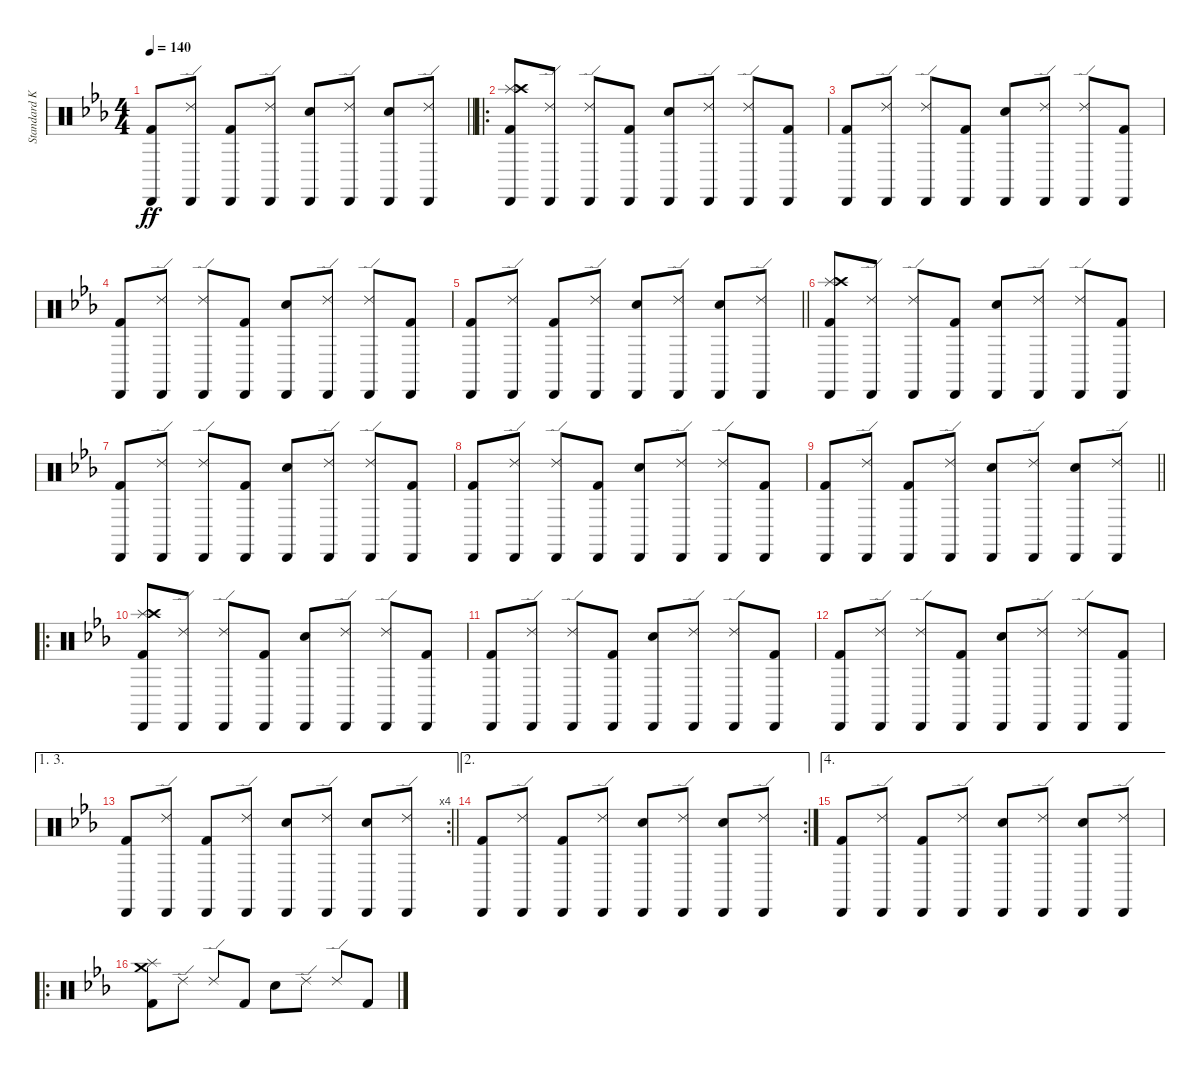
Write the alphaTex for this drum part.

\track ("Standard Kit" "Standard K") {instrument percussion}
\staff {score}
\articulation defaults
\ts (4 4)
\tempo 140
\clef neutral
\barLineRight lightlight
\ks eb
("Kick (hit) 2" "Cabasa (hit)").8{dy ff} ("Cabasa (hit)" "Ride (edge) 2").8 ("Kick (hit) 2" "Cabasa (hit)").8 ("Cabasa (hit)" "Ride (edge) 2").8 ("Cabasa (hit)" "Snare (hit) 2").8 ("Cabasa (hit)" "Ride (edge) 2").8 ("Cabasa (hit)" "Snare (hit) 2").8 ("Cabasa (hit)" "Ride (edge) 2").8 |
\ro
("Kick (hit) 2" "Cabasa (hit)" "Splash (hit)" "Crash high (hit)").8 ("Cabasa (hit)" "Ride (edge) 2").8 ("Cabasa (hit)" "Ride (edge) 2").8 ("Kick (hit) 2" "Cabasa (hit)").8 ("Cabasa (hit)" "Snare (hit) 2").8 ("Cabasa (hit)" "Ride (edge) 2").8 ("Cabasa (hit)" "Ride (edge) 2").8 ("Kick (hit) 2" "Cabasa (hit)").8 |
("Kick (hit) 2" "Cabasa (hit)").8 ("Cabasa (hit)" "Ride (edge) 2").8 ("Cabasa (hit)" "Ride (edge) 2").8 ("Kick (hit) 2" "Cabasa (hit)").8 ("Cabasa (hit)" "Snare (hit) 2").8 ("Cabasa (hit)" "Ride (edge) 2").8 ("Cabasa (hit)" "Ride (edge) 2").8 ("Kick (hit) 2" "Cabasa (hit)").8 |
("Kick (hit) 2" "Cabasa (hit)").8 ("Cabasa (hit)" "Ride (edge) 2").8 ("Cabasa (hit)" "Ride (edge) 2").8 ("Kick (hit) 2" "Cabasa (hit)").8 ("Cabasa (hit)" "Snare (hit) 2").8 ("Cabasa (hit)" "Ride (edge) 2").8 ("Cabasa (hit)" "Ride (edge) 2").8 ("Kick (hit) 2" "Cabasa (hit)").8 |
\barLineRight lightlight
("Kick (hit) 2" "Cabasa (hit)").8 ("Cabasa (hit)" "Ride (edge) 2").8 ("Kick (hit) 2" "Cabasa (hit)").8 ("Cabasa (hit)" "Ride (edge) 2").8 ("Cabasa (hit)" "Snare (hit) 2").8 ("Cabasa (hit)" "Ride (edge) 2").8 ("Cabasa (hit)" "Snare (hit) 2").8 ("Cabasa (hit)" "Ride (edge) 2").8 |
("Kick (hit) 2" "Cabasa (hit)" "Splash (hit)" "Crash high (hit)").8 ("Cabasa (hit)" "Ride (edge) 2").8 ("Cabasa (hit)" "Ride (edge) 2").8 ("Kick (hit) 2" "Cabasa (hit)").8 ("Cabasa (hit)" "Snare (hit) 2").8 ("Cabasa (hit)" "Ride (edge) 2").8 ("Cabasa (hit)" "Ride (edge) 2").8 ("Kick (hit) 2" "Cabasa (hit)").8 |
("Kick (hit) 2" "Cabasa (hit)").8 ("Cabasa (hit)" "Ride (edge) 2").8 ("Cabasa (hit)" "Ride (edge) 2").8 ("Kick (hit) 2" "Cabasa (hit)").8 ("Cabasa (hit)" "Snare (hit) 2").8 ("Cabasa (hit)" "Ride (edge) 2").8 ("Cabasa (hit)" "Ride (edge) 2").8 ("Kick (hit) 2" "Cabasa (hit)").8 |
("Kick (hit) 2" "Cabasa (hit)").8 ("Cabasa (hit)" "Ride (edge) 2").8 ("Cabasa (hit)" "Ride (edge) 2").8 ("Kick (hit) 2" "Cabasa (hit)").8 ("Cabasa (hit)" "Snare (hit) 2").8 ("Cabasa (hit)" "Ride (edge) 2").8 ("Cabasa (hit)" "Ride (edge) 2").8 ("Kick (hit) 2" "Cabasa (hit)").8 |
\barLineRight lightlight
("Kick (hit) 2" "Cabasa (hit)").8 ("Cabasa (hit)" "Ride (edge) 2").8 ("Kick (hit) 2" "Cabasa (hit)").8 ("Cabasa (hit)" "Ride (edge) 2").8 ("Cabasa (hit)" "Snare (hit) 2").8 ("Cabasa (hit)" "Ride (edge) 2").8 ("Cabasa (hit)" "Snare (hit) 2").8 ("Cabasa (hit)" "Ride (edge) 2").8 |
\ro
("Kick (hit) 2" "Cabasa (hit)" "Splash (hit)" "Crash high (hit)").8 ("Cabasa (hit)" "Ride (edge) 2").8 ("Cabasa (hit)" "Ride (edge) 2").8 ("Kick (hit) 2" "Cabasa (hit)").8 ("Cabasa (hit)" "Snare (hit) 2").8 ("Cabasa (hit)" "Ride (edge) 2").8 ("Cabasa (hit)" "Ride (edge) 2").8 ("Kick (hit) 2" "Cabasa (hit)").8 |
("Kick (hit) 2" "Cabasa (hit)").8 ("Cabasa (hit)" "Ride (edge) 2").8 ("Cabasa (hit)" "Ride (edge) 2").8 ("Kick (hit) 2" "Cabasa (hit)").8 ("Cabasa (hit)" "Snare (hit) 2").8 ("Cabasa (hit)" "Ride (edge) 2").8 ("Cabasa (hit)" "Ride (edge) 2").8 ("Kick (hit) 2" "Cabasa (hit)").8 |
("Kick (hit) 2" "Cabasa (hit)").8 ("Cabasa (hit)" "Ride (edge) 2").8 ("Cabasa (hit)" "Ride (edge) 2").8 ("Kick (hit) 2" "Cabasa (hit)").8 ("Cabasa (hit)" "Snare (hit) 2").8 ("Cabasa (hit)" "Ride (edge) 2").8 ("Cabasa (hit)" "Ride (edge) 2").8 ("Kick (hit) 2" "Cabasa (hit)").8 |
\ae (1 3)
\rc 4
\barLineRight lightlight
("Kick (hit) 2" "Cabasa (hit)").8 ("Cabasa (hit)" "Ride (edge) 2").8 ("Kick (hit) 2" "Cabasa (hit)").8 ("Cabasa (hit)" "Ride (edge) 2").8 ("Cabasa (hit)" "Snare (hit) 2").8 ("Cabasa (hit)" "Ride (edge) 2").8 ("Cabasa (hit)" "Snare (hit) 2").8 ("Cabasa (hit)" "Ride (edge) 2").8 |
\ae 2
\rc 2
("Kick (hit) 2" "Cabasa (hit)").8 ("Cabasa (hit)" "Ride (edge) 2").8 ("Kick (hit) 2" "Cabasa (hit)").8 ("Cabasa (hit)" "Ride (edge) 2").8 ("Cabasa (hit)" "Snare (hit) 2").8 ("Cabasa (hit)" "Ride (edge) 2").8 ("Cabasa (hit)" "Snare (hit) 2").8 ("Cabasa (hit)" "Ride (edge) 2").8 |
\ae 4
("Kick (hit) 2" "Cabasa (hit)").8 ("Cabasa (hit)" "Ride (edge) 2").8 ("Kick (hit) 2" "Cabasa (hit)").8 ("Cabasa (hit)" "Ride (edge) 2").8 ("Cabasa (hit)" "Snare (hit) 2").8 ("Cabasa (hit)" "Ride (edge) 2").8 ("Cabasa (hit)" "Snare (hit) 2").8 ("Cabasa (hit)" "Ride (edge) 2").8 |
\ro
("Kick (hit) 2" "Crash medium (hit)" "Splash (hit)").8 "Ride (edge) 2".8 "Ride (edge) 2".8 "Kick (hit) 2".8 "Snare (hit) 2".8 "Ride (edge) 2".8 "Ride (edge) 2".8 "Kick (hit) 2".8
